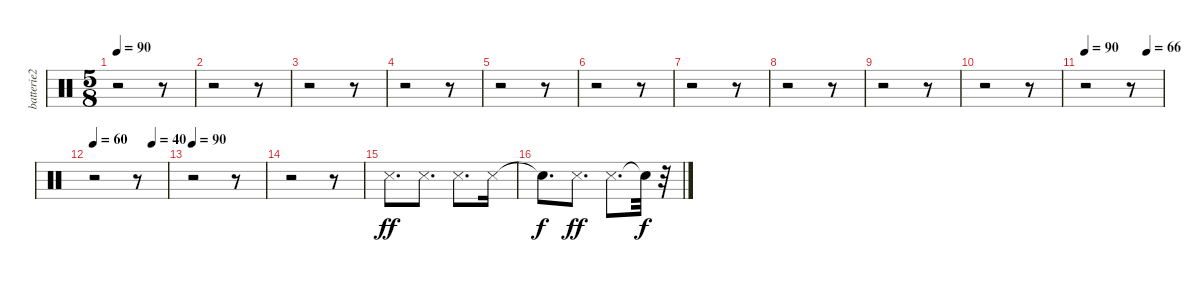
\track ("batterie2" "batterie2") {instrument percussion}
\staff {score}
\articulation defaults
\ts (5 8)
\tempo 90
\clef neutral
\ks c
r.2{dy ff} r.8 |
r.2 r.8 |
r.2 r.8 |
r.2 r.8 |
r.2 r.8 |
r.2 r.8 |
r.2 r.8 |
r.2 r.8 |
r.2 r.8 |
r.2 r.8 |
\tempo 90
\tempo (66 0.8)
r.2 r.8 |
\tempo 60
\tempo (40 0.8)
r.2 r.8 |
\tempo 90
r.2 r.8 |
r.2 r.8 |
"Snare (side stick) 3".8{d} "Snare (side stick) 3".8{d} "Snare (side stick) 3".8{d} "Snare (side stick) 3".16 |
"Snare (hit)"{t}.8{d dy f} "Snare (side stick) 3".8{d dy ff} "Snare (side stick) 3".8{d} "Snare (hit)"{t}.32{dy f} r.32
